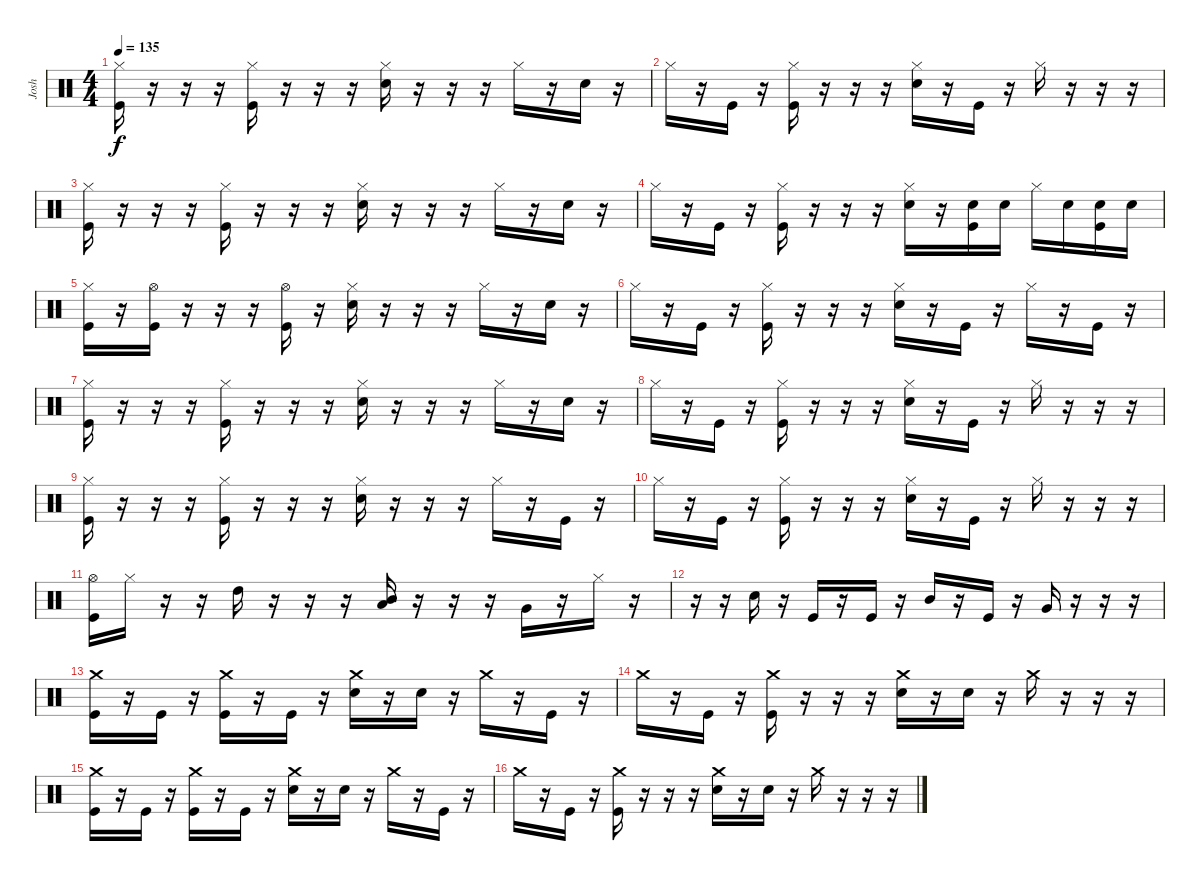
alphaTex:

\track ("Josh" "Josh") {instrument percussion}
\staff {score}
\articulation defaults
\ts (4 4)
\tempo 135
\clef neutral
\ks c
("Hi-Hat (closed)" "Kick (hit)").16{dy f} r.16 r.16 r.16 ("Hi-Hat (closed)" "Kick (hit)").16 r.16 r.16 r.16 ("Hi-Hat (closed)" "Snare (hit) 2").16 r.16 r.16 r.16 "Hi-Hat (closed)".16 r.16 "Snare (hit) 2".16 r.16 |
"Hi-Hat (closed)".16 r.16 "Kick (hit)".16 r.16 ("Hi-Hat (closed)" "Kick (hit)").16 r.16 r.16 r.16 ("Hi-Hat (closed)" "Snare (hit) 2").16 r.16 "Kick (hit)".16 r.16 "Hi-Hat (closed)".16 r.16 r.16 r.16 |
("Hi-Hat (closed)" "Kick (hit)").16 r.16 r.16 r.16 ("Hi-Hat (closed)" "Kick (hit)").16 r.16 r.16 r.16 ("Hi-Hat (closed)" "Snare (hit) 2").16 r.16 r.16 r.16 "Hi-Hat (closed)".16 r.16 "Snare (hit) 2".16 r.16 |
"Hi-Hat (closed)".16 r.16 "Kick (hit)".16 r.16 ("Hi-Hat (closed)" "Kick (hit)").16 r.16 r.16 r.16 ("Hi-Hat (closed)" "Snare (hit) 2").16 r.16 ("Snare (hit) 2" "Kick (hit)").16 "Snare (hit) 2".16 "Hi-Hat (closed)".16 "Snare (hit) 2".16 ("Snare (hit) 2" "Kick (hit)").16 "Snare (hit) 2".16 |
("Hi-Hat (closed)" "Kick (hit)").16 r.16 ("Hi-Hat (open)" "Kick (hit)").16 r.16 r.16 r.16 ("Hi-Hat (open)" "Kick (hit)").16 r.16 ("Hi-Hat (closed)" "Snare (hit) 2").16 r.16 r.16 r.16 "Hi-Hat (closed)".16 r.16 "Snare (hit) 2".16 r.16 |
"Hi-Hat (closed)".16 r.16 "Kick (hit)".16 r.16 ("Hi-Hat (closed)" "Kick (hit)").16 r.16 r.16 r.16 ("Hi-Hat (closed)" "Snare (hit) 2").16 r.16 "Kick (hit)".16 r.16 "Hi-Hat (closed)".16 r.16 "Kick (hit)".16 r.16 |
("Hi-Hat (closed)" "Kick (hit)").16 r.16 r.16 r.16 ("Hi-Hat (closed)" "Kick (hit)").16 r.16 r.16 r.16 ("Hi-Hat (closed)" "Snare (hit) 2").16 r.16 r.16 r.16 "Hi-Hat (closed)".16 r.16 "Snare (hit) 2".16 r.16 |
"Hi-Hat (closed)".16 r.16 "Kick (hit)".16 r.16 ("Hi-Hat (closed)" "Kick (hit)").16 r.16 r.16 r.16 ("Hi-Hat (closed)" "Snare (hit) 2").16 r.16 "Kick (hit)".16 r.16 "Hi-Hat (closed)".16 r.16 r.16 r.16 |
("Hi-Hat (closed)" "Kick (hit)").16 r.16 r.16 r.16 ("Hi-Hat (closed)" "Kick (hit)").16 r.16 r.16 r.16 ("Hi-Hat (closed)" "Snare (hit) 2").16 r.16 r.16 r.16 "Hi-Hat (closed)".16 r.16 "Kick (hit)".16 r.16 |
"Hi-Hat (closed)".16 r.16 "Kick (hit)".16 r.16 ("Hi-Hat (closed)" "Kick (hit)").16 r.16 r.16 r.16 ("Hi-Hat (closed)" "Snare (hit) 2").16 r.16 "Kick (hit)".16 r.16 "Hi-Hat (closed)".16 r.16 r.16 r.16 |
("Hi-Hat (open)" "Kick (hit)").16 "Hi-Hat (closed)".16 r.16 r.16 "High Tom (hit)".16 r.16 r.16 r.16 ("Mid Tom (hit)" "Low Tom (hit)").16 r.16 r.16 r.16 "Very Low Tom (hit)".16 r.16 "Hi-Hat (closed)".16 r.16 |
r.16 r.16 "Snare (hit) 2".16 r.16 "Kick (hit)".16 r.16 "Kick (hit)".16 r.16 "Mid Tom (hit)".16 r.16 "Kick (hit)".16 r.16 "Very Low Tom (hit)".16 r.16 r.16 r.16 |
("Crash medium (hit)" "Kick (hit)").16 r.16 "Kick (hit)".16 r.16 ("Crash medium (hit)" "Kick (hit)").16 r.16 "Kick (hit)".16 r.16 ("Crash medium (hit)" "Snare (hit) 2").16 r.16 "Snare (hit) 2".16 r.16 "Crash medium (hit)".16 r.16 "Kick (hit)".16 r.16 |
"Crash medium (hit)".16 r.16 "Kick (hit)".16 r.16 ("Crash medium (hit)" "Kick (hit)").16 r.16 r.16 r.16 ("Crash medium (hit)" "Snare (hit) 2").16 r.16 "Snare (hit) 2".16 r.16 "Crash medium (hit)".16 r.16 r.16 r.16 |
("Crash medium (hit)" "Kick (hit)").16 r.16 "Kick (hit)".16 r.16 ("Crash medium (hit)" "Kick (hit)").16 r.16 "Kick (hit)".16 r.16 ("Crash medium (hit)" "Snare (hit) 2").16 r.16 "Snare (hit) 2".16 r.16 "Crash medium (hit)".16 r.16 "Kick (hit)".16 r.16 |
"Crash medium (hit)".16 r.16 "Kick (hit)".16 r.16 ("Crash medium (hit)" "Kick (hit)").16 r.16 r.16 r.16 ("Crash medium (hit)" "Snare (hit) 2").16 r.16 "Snare (hit) 2".16 r.16 "Crash medium (hit)".16 r.16 r.16 r.16
